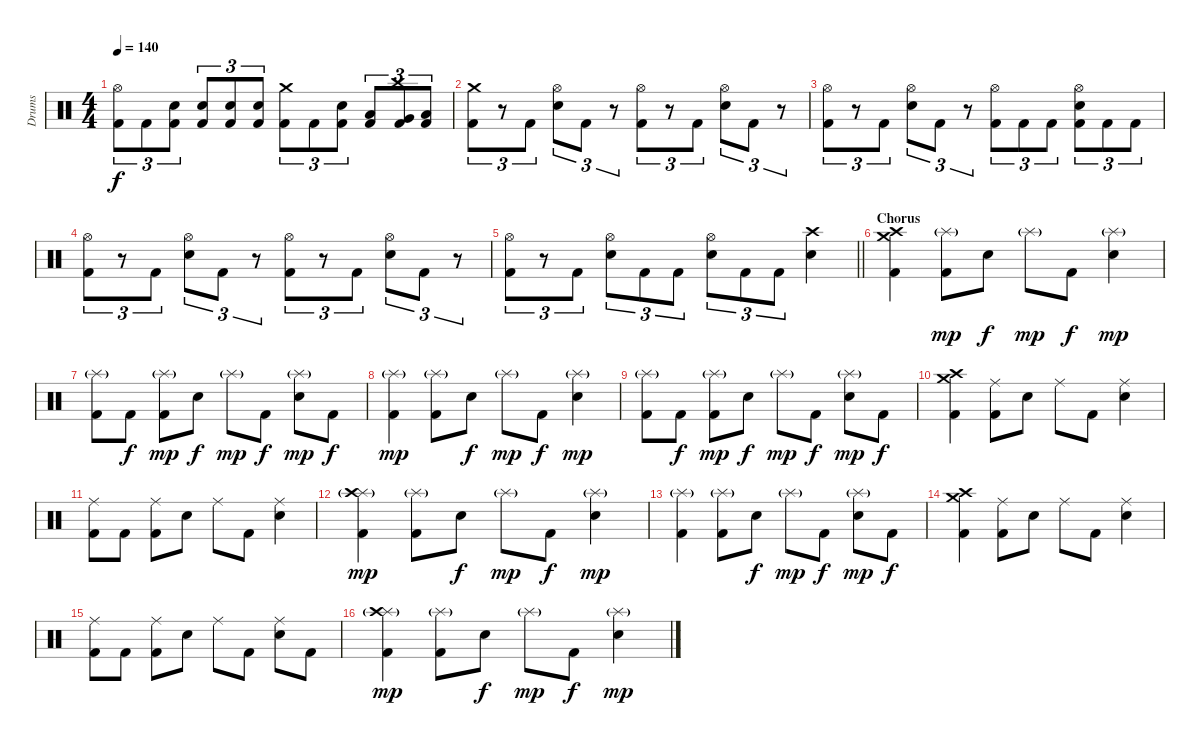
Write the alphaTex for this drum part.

\track ("Drums" "Drums") {instrument percussion}
\staff {score}
\articulation defaults
\ts (4 4)
\tempo 140
\clef neutral
\ks c
("Hi-Hat (open)" "Kick (hit) 2").8{tu (3 2) dy f} "Kick (hit) 2".8{tu (3 2)} ("Electric Snare (hit)" "Kick (hit) 2").8{tu (3 2)} ("Electric Snare (hit)" "Kick (hit) 2").8{tu (3 2)} ("Electric Snare (hit)" "Kick (hit) 2").8{tu (3 2)} ("Electric Snare (hit)" "Kick (hit) 2").8{tu (3 2)} ("Crash medium (hit)" "Kick (hit) 2").8{tu (3 2)} "Kick (hit) 2".8{tu (3 2)} ("Electric Snare (hit)" "Kick (hit) 2").8{tu (3 2)} ("Low Tom (hit)" "Kick (hit) 2").8{tu (3 2)} ("Crash high (hit)" "Very Low Tom (hit)" "Kick (hit) 2").8{tu (3 2)} ("Low Floor Tom (hit)" "Kick (hit) 2").8{tu (3 2)} |
("Crash medium (hit)" "Kick (hit) 2").8{tu (3 2)} r.8{tu (3 2)} "Kick (hit) 2".8{tu (3 2)} ("Hi-Hat (open)" "Electric Snare (hit)").8{tu (3 2)} "Kick (hit) 2".8{tu (3 2)} r.8{tu (3 2)} ("Hi-Hat (open)" "Kick (hit) 2").8{tu (3 2)} r.8{tu (3 2)} "Kick (hit) 2".8{tu (3 2)} ("Hi-Hat (open)" "Electric Snare (hit)").8{tu (3 2)} "Kick (hit) 2".8{tu (3 2)} r.8{tu (3 2)} |
("Hi-Hat (open)" "Kick (hit) 2").8{tu (3 2)} r.8{tu (3 2)} "Kick (hit) 2".8{tu (3 2)} ("Hi-Hat (open)" "Electric Snare (hit)").8{tu (3 2)} "Kick (hit) 2".8{tu (3 2)} r.8{tu (3 2)} ("Hi-Hat (open)" "Kick (hit) 2").8{tu (3 2)} "Kick (hit) 2".8{tu (3 2)} "Kick (hit) 2".8{tu (3 2)} ("Hi-Hat (open)" "Electric Snare (hit)" "Kick (hit) 2").8{tu (3 2)} "Kick (hit) 2".8{tu (3 2)} "Kick (hit) 2".8{tu (3 2)} |
("Hi-Hat (open)" "Kick (hit) 2").8{tu (3 2)} r.8{tu (3 2)} "Kick (hit) 2".8{tu (3 2)} ("Hi-Hat (open)" "Electric Snare (hit)").8{tu (3 2)} "Kick (hit) 2".8{tu (3 2)} r.8{tu (3 2)} ("Hi-Hat (open)" "Kick (hit) 2").8{tu (3 2)} r.8{tu (3 2)} "Kick (hit) 2".8{tu (3 2)} ("Hi-Hat (open)" "Electric Snare (hit)").8{tu (3 2)} "Kick (hit) 2".8{tu (3 2)} r.8{tu (3 2)} |
\barLineRight lightlight
("Hi-Hat (open)" "Kick (hit) 2").8{tu (3 2)} r.8{tu (3 2)} "Kick (hit) 2".8{tu (3 2)} ("Hi-Hat (open)" "Electric Snare (hit)").8{tu (3 2)} "Kick (hit) 2".8{tu (3 2)} "Kick (hit) 2".8{tu (3 2)} ("Hi-Hat (open)" "Electric Snare (hit)").8{tu (3 2)} "Kick (hit) 2".8{tu (3 2)} "Kick (hit) 2".8{tu (3 2)} ("Crash high (hit)" "Electric Snare (hit)").4 |
\section ("" "Chorus")
("Crash medium (hit)" "Crash high (hit)" "Kick (hit) 2").4 ("Splash (hit)"{g} "Kick (hit) 2").8{dy mp} "Electric Snare (hit)".8{dy f} "Splash (hit)"{g}.8{dy mp} "Kick (hit) 2".8{dy f} ("Splash (hit)"{g} "Electric Snare (hit)").4{dy mp} |
("Splash (hit)"{g} "Kick (hit) 2").8 "Kick (hit) 2".8{dy f} ("Splash (hit)"{g} "Kick (hit) 2").8{dy mp} "Electric Snare (hit)".8{dy f} "Splash (hit)"{g}.8{dy mp} "Kick (hit) 2".8{dy f} ("Splash (hit)"{g} "Electric Snare (hit)").8{dy mp} "Kick (hit) 2".8{dy f} |
("Splash (hit)"{g} "Kick (hit) 2").4{dy mp} ("Splash (hit)"{g} "Kick (hit) 2").8 "Electric Snare (hit)".8{dy f} "Splash (hit)"{g}.8{dy mp} "Kick (hit) 2".8{dy f} ("Splash (hit)"{g} "Electric Snare (hit)").4{dy mp} |
("Splash (hit)"{g} "Kick (hit) 2").8 "Kick (hit) 2".8{dy f} ("Splash (hit)"{g} "Kick (hit) 2").8{dy mp} "Electric Snare (hit)".8{dy f} "Splash (hit)"{g}.8{dy mp} "Kick (hit) 2".8{dy f} ("Splash (hit)"{g} "Electric Snare (hit)").8{dy mp} "Kick (hit) 2".8{dy f} |
("Crash medium (hit)" "Crash high (hit)" "Kick (hit) 2").4 ("Ride (middle)" "Kick (hit) 2").8 "Electric Snare (hit)".8 "Ride (middle)".8 "Kick (hit) 2".8 ("Ride (middle)" "Electric Snare (hit)").4 |
("Ride (middle)" "Kick (hit) 2").8 "Kick (hit) 2".8 ("Ride (middle)" "Kick (hit) 2").8 "Electric Snare (hit)".8 "Ride (middle)".8 "Kick (hit) 2".8 ("Ride (middle)" "Electric Snare (hit)").4 |
("Splash (hit)"{g} "Crash high (hit)" "Kick (hit) 2").4{dy mp} ("Splash (hit)"{g} "Kick (hit) 2").8 "Electric Snare (hit)".8{dy f} "Splash (hit)"{g}.8{dy mp} "Kick (hit) 2".8{dy f} ("Splash (hit)"{g} "Electric Snare (hit)").4{dy mp} |
("Splash (hit)"{g} "Kick (hit) 2").4 ("Splash (hit)"{g} "Kick (hit) 2").8 "Electric Snare (hit)".8{dy f} "Splash (hit)"{g}.8{dy mp} "Kick (hit) 2".8{dy f} ("Splash (hit)"{g} "Electric Snare (hit)").8{dy mp} "Kick (hit) 2".8{dy f} |
("Crash medium (hit)" "Crash high (hit)" "Kick (hit) 2").4 ("Ride (middle)" "Kick (hit) 2").8 "Electric Snare (hit)".8 "Ride (middle)".8 "Kick (hit) 2".8 ("Ride (middle)" "Electric Snare (hit)").4 |
("Ride (middle)" "Kick (hit) 2").8 "Kick (hit) 2".8 ("Ride (middle)" "Kick (hit) 2").8 "Electric Snare (hit)".8 "Ride (middle)".8 "Kick (hit) 2".8 ("Ride (middle)" "Electric Snare (hit)").8 "Kick (hit) 2".8 |
("Splash (hit)"{g} "Crash high (hit)" "Kick (hit) 2").4{dy mp} ("Splash (hit)"{g} "Kick (hit) 2").8 "Electric Snare (hit)".8{dy f} "Splash (hit)"{g}.8{dy mp} "Kick (hit) 2".8{dy f} ("Splash (hit)"{g} "Electric Snare (hit)").4{dy mp}
